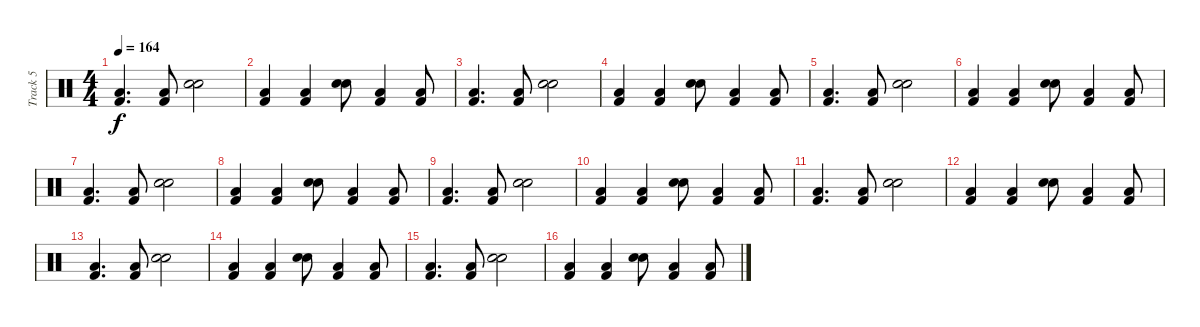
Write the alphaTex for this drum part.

\track ("Track 5" "Track 5") {instrument percussion}
\staff {score}
\articulation defaults
\ts (4 4)
\tempo 164
\clef neutral
\ks c
("Low Floor Tom (hit)" "Kick (hit) 2").4{d dy f} ("Low Floor Tom (hit)" "Kick (hit) 2").8 ("Hand Clap (hit)" "Electric Snare (hit)").2 |
("Low Floor Tom (hit)" "Kick (hit) 2").4 ("Low Floor Tom (hit)" "Kick (hit) 2").4 ("Hand Clap (hit)" "Electric Snare (hit)").8 ("Low Floor Tom (hit)" "Kick (hit) 2").4 ("Low Floor Tom (hit)" "Kick (hit) 2").8 |
("Low Floor Tom (hit)" "Kick (hit) 2").4{d} ("Low Floor Tom (hit)" "Kick (hit) 2").8 ("Hand Clap (hit)" "Electric Snare (hit)").2 |
("Low Floor Tom (hit)" "Kick (hit) 2").4 ("Low Floor Tom (hit)" "Kick (hit) 2").4 ("Hand Clap (hit)" "Electric Snare (hit)").8 ("Low Floor Tom (hit)" "Kick (hit) 2").4 ("Low Floor Tom (hit)" "Kick (hit) 2").8 |
("Low Floor Tom (hit)" "Kick (hit) 2").4{d} ("Low Floor Tom (hit)" "Kick (hit) 2").8 ("Hand Clap (hit)" "Electric Snare (hit)").2 |
("Low Floor Tom (hit)" "Kick (hit) 2").4 ("Low Floor Tom (hit)" "Kick (hit) 2").4 ("Hand Clap (hit)" "Electric Snare (hit)").8 ("Low Floor Tom (hit)" "Kick (hit) 2").4 ("Low Floor Tom (hit)" "Kick (hit) 2").8 |
("Low Floor Tom (hit)" "Kick (hit) 2").4{d} ("Low Floor Tom (hit)" "Kick (hit) 2").8 ("Hand Clap (hit)" "Electric Snare (hit)").2 |
("Low Floor Tom (hit)" "Kick (hit) 2").4 ("Low Floor Tom (hit)" "Kick (hit) 2").4 ("Hand Clap (hit)" "Electric Snare (hit)").8 ("Low Floor Tom (hit)" "Kick (hit) 2").4 ("Low Floor Tom (hit)" "Kick (hit) 2").8 |
("Low Floor Tom (hit)" "Kick (hit) 2").4{d} ("Low Floor Tom (hit)" "Kick (hit) 2").8 ("Hand Clap (hit)" "Electric Snare (hit)").2 |
("Low Floor Tom (hit)" "Kick (hit) 2").4 ("Low Floor Tom (hit)" "Kick (hit) 2").4 ("Hand Clap (hit)" "Electric Snare (hit)").8 ("Low Floor Tom (hit)" "Kick (hit) 2").4 ("Low Floor Tom (hit)" "Kick (hit) 2").8 |
("Low Floor Tom (hit)" "Kick (hit) 2").4{d} ("Low Floor Tom (hit)" "Kick (hit) 2").8 ("Hand Clap (hit)" "Electric Snare (hit)").2 |
("Low Floor Tom (hit)" "Kick (hit) 2").4 ("Low Floor Tom (hit)" "Kick (hit) 2").4 ("Hand Clap (hit)" "Electric Snare (hit)").8 ("Low Floor Tom (hit)" "Kick (hit) 2").4 ("Low Floor Tom (hit)" "Kick (hit) 2").8 |
("Low Floor Tom (hit)" "Kick (hit) 2").4{d} ("Low Floor Tom (hit)" "Kick (hit) 2").8 ("Hand Clap (hit)" "Electric Snare (hit)").2 |
("Low Floor Tom (hit)" "Kick (hit) 2").4 ("Low Floor Tom (hit)" "Kick (hit) 2").4 ("Hand Clap (hit)" "Electric Snare (hit)").8 ("Low Floor Tom (hit)" "Kick (hit) 2").4 ("Low Floor Tom (hit)" "Kick (hit) 2").8 |
("Low Floor Tom (hit)" "Kick (hit) 2").4{d} ("Low Floor Tom (hit)" "Kick (hit) 2").8 ("Hand Clap (hit)" "Electric Snare (hit)").2 |
("Low Floor Tom (hit)" "Kick (hit) 2").4 ("Low Floor Tom (hit)" "Kick (hit) 2").4 ("Hand Clap (hit)" "Electric Snare (hit)").8 ("Low Floor Tom (hit)" "Kick (hit) 2").4 ("Low Floor Tom (hit)" "Kick (hit) 2").8
